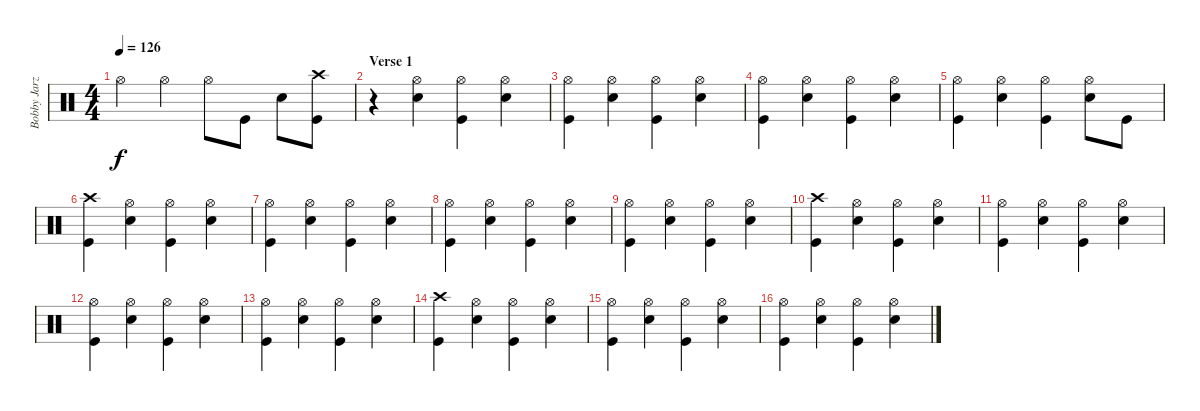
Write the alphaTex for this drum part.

\track ("Bobby Jarzombek" "Bobby Jarz") {instrument percussion}
\staff {score}
\articulation defaults
\ts (4 4)
\tempo 126
\clef neutral
\ks c "Hi-Hat (open)".4{dy f} "Hi-Hat (open)".4 "Hi-Hat (open)".8 "Kick (hit)".8 "Electric Snare (hit)".8
("Crash high (hit)" "Kick (hit)").8 |
\section ("" "Verse 1")
r.4 ("Hi-Hat (open)" "Electric Snare (hit)").4 ("Hi-Hat (open)" "Kick (hit)").4 ("Hi-Hat (open)" "Electric Snare (hit)").4 |
("Hi-Hat (open)" "Kick (hit)").4 ("Hi-Hat (open)" "Electric Snare (hit)").4 ("Hi-Hat (open)" "Kick (hit)").4 ("Hi-Hat (open)" "Electric Snare (hit)").4 |
("Hi-Hat (open)" "Kick (hit)").4 ("Hi-Hat (open)" "Electric Snare (hit)").4 ("Hi-Hat (open)" "Kick (hit)").4 ("Hi-Hat (open)" "Electric Snare (hit)").4 |
("Hi-Hat (open)" "Kick (hit)").4 ("Hi-Hat (open)" "Electric Snare (hit)").4 ("Hi-Hat (open)" "Kick (hit)").4 ("Hi-Hat (open)" "Electric Snare (hit)").8 "Kick (hit)".8 |
("Crash high (hit)" "Kick (hit)").4 ("Hi-Hat (open)" "Electric Snare (hit)").4 ("Hi-Hat (open)" "Kick (hit)").4 ("Hi-Hat (open)" "Electric Snare (hit)").4 |
("Hi-Hat (open)" "Kick (hit)").4 ("Hi-Hat (open)" "Electric Snare (hit)").4 ("Hi-Hat (open)" "Kick (hit)").4 ("Hi-Hat (open)" "Electric Snare (hit)").4 |
("Hi-Hat (open)" "Kick (hit)").4 ("Hi-Hat (open)" "Electric Snare (hit)").4 ("Hi-Hat (open)" "Kick (hit)").4 ("Hi-Hat (open)" "Electric Snare (hit)").4 |
("Hi-Hat (open)" "Kick (hit)").4 ("Hi-Hat (open)" "Electric Snare (hit)").4 ("Hi-Hat (open)" "Kick (hit)").4 ("Hi-Hat (open)" "Electric Snare (hit)").4 |
("Crash high (hit)" "Kick (hit)").4 ("Hi-Hat (open)" "Electric Snare (hit)").4 ("Hi-Hat (open)" "Kick (hit)").4 ("Hi-Hat (open)" "Electric Snare (hit)").4 |
("Hi-Hat (open)" "Kick (hit)").4 ("Hi-Hat (open)" "Electric Snare (hit)").4 ("Hi-Hat (open)" "Kick (hit)").4 ("Hi-Hat (open)" "Electric Snare (hit)").4 |
("Hi-Hat (open)" "Kick (hit)").4 ("Hi-Hat (open)" "Electric Snare (hit)").4 ("Hi-Hat (open)" "Kick (hit)").4 ("Hi-Hat (open)" "Electric Snare (hit)").4 |
("Hi-Hat (open)" "Kick (hit)").4 ("Hi-Hat (open)" "Electric Snare (hit)").4 ("Hi-Hat (open)" "Kick (hit)").4 ("Hi-Hat (open)" "Electric Snare (hit)").4 |
("Crash high (hit)" "Kick (hit)").4 ("Hi-Hat (open)" "Electric Snare (hit)").4 ("Hi-Hat (open)" "Kick (hit)").4 ("Hi-Hat (open)" "Electric Snare (hit)").4 |
("Hi-Hat (open)" "Kick (hit)").4 ("Hi-Hat (open)" "Electric Snare (hit)").4 ("Hi-Hat (open)" "Kick (hit)").4 ("Hi-Hat (open)" "Electric Snare (hit)").4 |
("Hi-Hat (open)" "Kick (hit)").4 ("Hi-Hat (open)" "Electric Snare (hit)").4 ("Hi-Hat (open)" "Kick (hit)").4 ("Hi-Hat (open)" "Electric Snare (hit)").4
